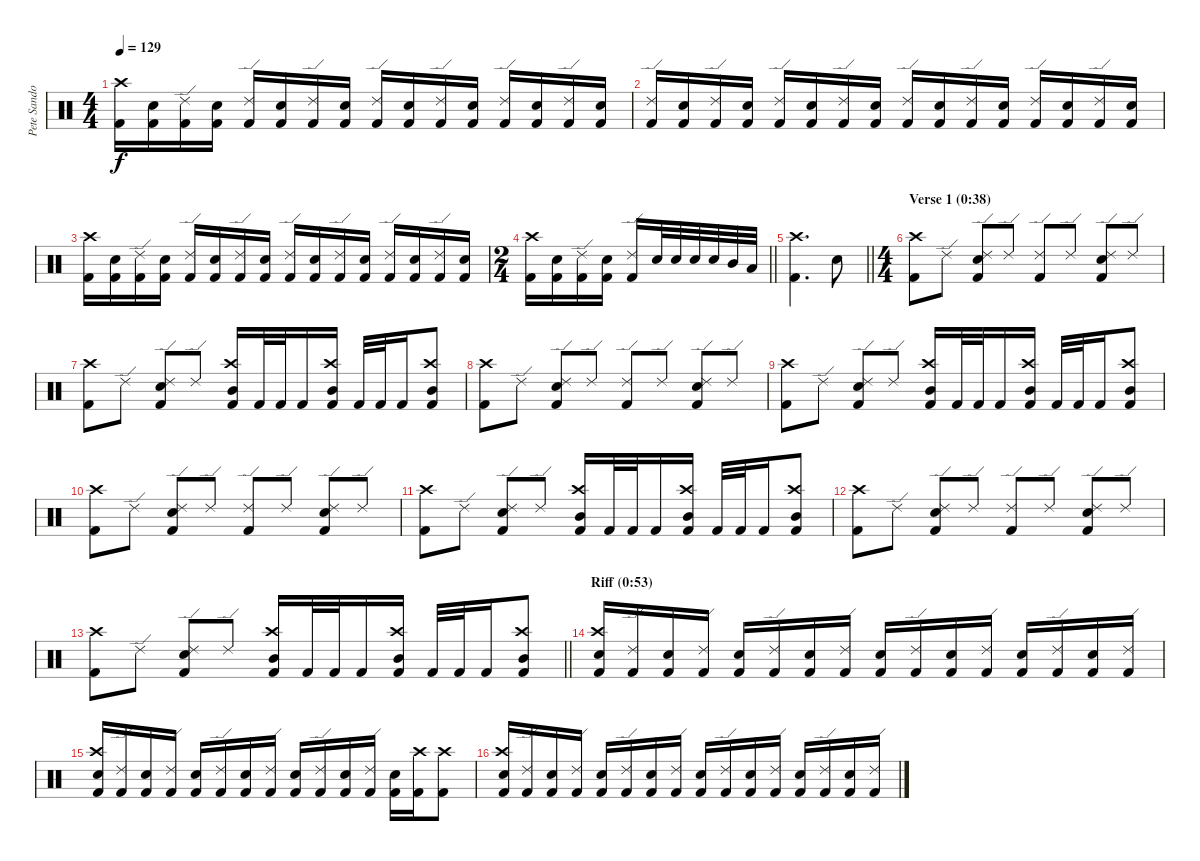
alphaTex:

\track ("Pete Sandoval " "Pete Sando") {instrument percussion}
\staff {score}
\articulation defaults
\ts (4 4)
\tempo 129
\clef neutral
\ks c
("Kick (hit) 2" "Crash high (hit)").16{dy f} ("Kick (hit) 2" "Snare (hit) 2").16 ("Kick (hit) 2" "Ride (edge) 2").16 ("Kick (hit) 2" "Snare (hit) 2").16 ("Kick (hit) 2" "Ride (edge) 2").16 ("Kick (hit) 2" "Snare (hit) 2").16 ("Kick (hit) 2" "Ride (edge) 2").16 ("Kick (hit) 2" "Snare (hit) 2").16 ("Kick (hit) 2" "Ride (edge) 2").16 ("Kick (hit) 2" "Snare (hit) 2").16 ("Kick (hit) 2" "Ride (edge) 2").16 ("Kick (hit) 2" "Snare (hit) 2").16 ("Kick (hit) 2" "Ride (edge) 2").16 ("Kick (hit) 2" "Snare (hit) 2").16 ("Kick (hit) 2" "Ride (edge) 2").16 ("Kick (hit) 2" "Snare (hit) 2").16 |
("Kick (hit) 2" "Ride (edge) 2").16 ("Kick (hit) 2" "Snare (hit) 2").16 ("Kick (hit) 2" "Ride (edge) 2").16 ("Kick (hit) 2" "Snare (hit) 2").16 ("Kick (hit) 2" "Ride (edge) 2").16 ("Kick (hit) 2" "Snare (hit) 2").16 ("Kick (hit) 2" "Ride (edge) 2").16 ("Kick (hit) 2" "Snare (hit) 2").16 ("Kick (hit) 2" "Ride (edge) 2").16 ("Kick (hit) 2" "Snare (hit) 2").16 ("Kick (hit) 2" "Ride (edge) 2").16 ("Kick (hit) 2" "Snare (hit) 2").16 ("Kick (hit) 2" "Ride (edge) 2").16 ("Kick (hit) 2" "Snare (hit) 2").16 ("Kick (hit) 2" "Ride (edge) 2").16 ("Kick (hit) 2" "Snare (hit) 2").16 |
("Kick (hit) 2" "Crash high (hit)").16 ("Kick (hit) 2" "Snare (hit) 2").16 ("Kick (hit) 2" "Ride (edge) 2").16 ("Kick (hit) 2" "Snare (hit) 2").16 ("Kick (hit) 2" "Ride (edge) 2").16 ("Kick (hit) 2" "Snare (hit) 2").16 ("Kick (hit) 2" "Ride (edge) 2").16 ("Kick (hit) 2" "Snare (hit) 2").16 ("Kick (hit) 2" "Ride (edge) 2").16 ("Kick (hit) 2" "Snare (hit) 2").16 ("Kick (hit) 2" "Ride (edge) 2").16 ("Kick (hit) 2" "Snare (hit) 2").16 ("Kick (hit) 2" "Ride (edge) 2").16 ("Kick (hit) 2" "Snare (hit) 2").16 ("Kick (hit) 2" "Ride (edge) 2").16 ("Kick (hit) 2" "Snare (hit) 2").16 |
\ts (2 4)
\barLineRight lightlight
("Kick (hit) 2" "Crash high (hit)").16 ("Kick (hit) 2" "Snare (hit) 2").16 ("Kick (hit) 2" "Ride (edge) 2").16 ("Kick (hit) 2" "Snare (hit) 2").16 ("Kick (hit) 2" "Ride (edge) 2").16 "Snare (hit) 2".32 "Snare (hit) 2".32 "Snare (hit) 2".32 "Snare (hit) 2".32 "Mid Tom (hit)".32 "Low Tom (hit)".32 |
\barLineRight lightlight
("Kick (hit) 2" "Crash high (hit)").4{d} "Snare (hit) 2".8 |
\ts (4 4)
\section ("" "Verse 1 (0:38)")
("Kick (hit) 2" "Crash high (hit)").8 "Ride (edge) 2".8 ("Kick (hit) 2" "Snare (hit) 2" "Ride (edge) 2").8 "Ride (edge) 2".8 ("Kick (hit) 2" "Ride (edge) 2").8 "Ride (edge) 2".8 ("Kick (hit) 2" "Snare (hit) 2" "Ride (edge) 2").8 "Ride (edge) 2".8 |
("Kick (hit) 2" "Crash high (hit)").8 "Ride (edge) 2".8 ("Kick (hit) 2" "Snare (hit) 2" "Ride (edge) 2").8 "Ride (edge) 2".8 ("Kick (hit) 2" "Mid Tom (hit)" "Crash high (hit)").16 "Kick (hit) 2".32 "Kick (hit) 2".32 "Kick (hit) 2".16 ("Kick (hit) 2" "Mid Tom (hit)" "Crash high (hit)").16 "Kick (hit) 2".32 "Kick (hit) 2".32 "Kick (hit) 2".16 ("Kick (hit) 2" "Mid Tom (hit)" "Crash high (hit)").8 |
("Kick (hit) 2" "Crash high (hit)").8 "Ride (edge) 2".8 ("Kick (hit) 2" "Snare (hit) 2" "Ride (edge) 2").8 "Ride (edge) 2".8 ("Kick (hit) 2" "Ride (edge) 2").8 "Ride (edge) 2".8 ("Kick (hit) 2" "Snare (hit) 2" "Ride (edge) 2").8 "Ride (edge) 2".8 |
("Kick (hit) 2" "Crash high (hit)").8 "Ride (edge) 2".8 ("Kick (hit) 2" "Snare (hit) 2" "Ride (edge) 2").8 "Ride (edge) 2".8 ("Kick (hit) 2" "Mid Tom (hit)" "Crash high (hit)").16 "Kick (hit) 2".32 "Kick (hit) 2".32 "Kick (hit) 2".16 ("Kick (hit) 2" "Mid Tom (hit)" "Crash high (hit)").16 "Kick (hit) 2".32 "Kick (hit) 2".32 "Kick (hit) 2".16 ("Kick (hit) 2" "Mid Tom (hit)" "Crash high (hit)").8 |
("Kick (hit) 2" "Crash high (hit)").8 "Ride (edge) 2".8 ("Kick (hit) 2" "Snare (hit) 2" "Ride (edge) 2").8 "Ride (edge) 2".8 ("Kick (hit) 2" "Ride (edge) 2").8 "Ride (edge) 2".8 ("Kick (hit) 2" "Snare (hit) 2" "Ride (edge) 2").8 "Ride (edge) 2".8 |
("Kick (hit) 2" "Crash high (hit)").8 "Ride (edge) 2".8 ("Kick (hit) 2" "Snare (hit) 2" "Ride (edge) 2").8 "Ride (edge) 2".8 ("Kick (hit) 2" "Mid Tom (hit)" "Crash high (hit)").16 "Kick (hit) 2".32 "Kick (hit) 2".32 "Kick (hit) 2".16 ("Kick (hit) 2" "Mid Tom (hit)" "Crash high (hit)").16 "Kick (hit) 2".32 "Kick (hit) 2".32 "Kick (hit) 2".16 ("Kick (hit) 2" "Mid Tom (hit)" "Crash high (hit)").8 |
("Kick (hit) 2" "Crash high (hit)").8 "Ride (edge) 2".8 ("Kick (hit) 2" "Snare (hit) 2" "Ride (edge) 2").8 "Ride (edge) 2".8 ("Kick (hit) 2" "Ride (edge) 2").8 "Ride (edge) 2".8 ("Kick (hit) 2" "Snare (hit) 2" "Ride (edge) 2").8 "Ride (edge) 2".8 |
\barLineRight lightlight
("Kick (hit) 2" "Crash high (hit)").8 "Ride (edge) 2".8 ("Kick (hit) 2" "Snare (hit) 2" "Ride (edge) 2").8 "Ride (edge) 2".8 ("Kick (hit) 2" "Mid Tom (hit)" "Crash high (hit)").16 "Kick (hit) 2".32 "Kick (hit) 2".32 "Kick (hit) 2".16 ("Kick (hit) 2" "Mid Tom (hit)" "Crash high (hit)").16 "Kick (hit) 2".32 "Kick (hit) 2".32 "Kick (hit) 2".16 ("Kick (hit) 2" "Mid Tom (hit)" "Crash high (hit)").8 |
\section ("" "Riff (0:53)")
("Kick (hit) 2" "Snare (hit) 2" "Crash high (hit)").16 ("Kick (hit) 2" "Ride (edge) 2").16 ("Kick (hit) 2" "Snare (hit) 2").16 ("Kick (hit) 2" "Ride (edge) 2").16 ("Kick (hit) 2" "Snare (hit) 2").16 ("Kick (hit) 2" "Ride (edge) 2").16 ("Kick (hit) 2" "Snare (hit) 2").16 ("Kick (hit) 2" "Ride (edge) 2").16 ("Kick (hit) 2" "Snare (hit) 2").16 ("Kick (hit) 2" "Ride (edge) 2").16 ("Kick (hit) 2" "Snare (hit) 2").16 ("Kick (hit) 2" "Ride (edge) 2").16 ("Kick (hit) 2" "Snare (hit) 2").16 ("Kick (hit) 2" "Ride (edge) 2").16 ("Kick (hit) 2" "Snare (hit) 2").16 ("Kick (hit) 2" "Ride (edge) 2").16 |
("Kick (hit) 2" "Snare (hit) 2" "Crash high (hit)").16 ("Kick (hit) 2" "Ride (edge) 2").16 ("Kick (hit) 2" "Snare (hit) 2").16 ("Kick (hit) 2" "Ride (edge) 2").16 ("Kick (hit) 2" "Snare (hit) 2").16 ("Kick (hit) 2" "Ride (edge) 2").16 ("Kick (hit) 2" "Snare (hit) 2").16 ("Kick (hit) 2" "Ride (edge) 2").16 ("Kick (hit) 2" "Snare (hit) 2").16 ("Kick (hit) 2" "Ride (edge) 2").16 ("Kick (hit) 2" "Snare (hit) 2").16 ("Kick (hit) 2" "Ride (edge) 2").16 ("Kick (hit) 2" "Snare (hit) 2").16 ("Kick (hit) 2" "Crash high (hit)").16 ("Kick (hit) 2" "Crash high (hit)").8 |
("Kick (hit) 2" "Snare (hit) 2" "Crash high (hit)").16 ("Kick (hit) 2" "Ride (edge) 2").16 ("Kick (hit) 2" "Snare (hit) 2").16 ("Kick (hit) 2" "Ride (edge) 2").16 ("Kick (hit) 2" "Snare (hit) 2").16 ("Kick (hit) 2" "Ride (edge) 2").16 ("Kick (hit) 2" "Snare (hit) 2").16 ("Kick (hit) 2" "Ride (edge) 2").16 ("Kick (hit) 2" "Snare (hit) 2").16 ("Kick (hit) 2" "Ride (edge) 2").16 ("Kick (hit) 2" "Snare (hit) 2").16 ("Kick (hit) 2" "Ride (edge) 2").16 ("Kick (hit) 2" "Snare (hit) 2").16 ("Kick (hit) 2" "Ride (edge) 2").16 ("Kick (hit) 2" "Snare (hit) 2").16 ("Kick (hit) 2" "Ride (edge) 2").16
